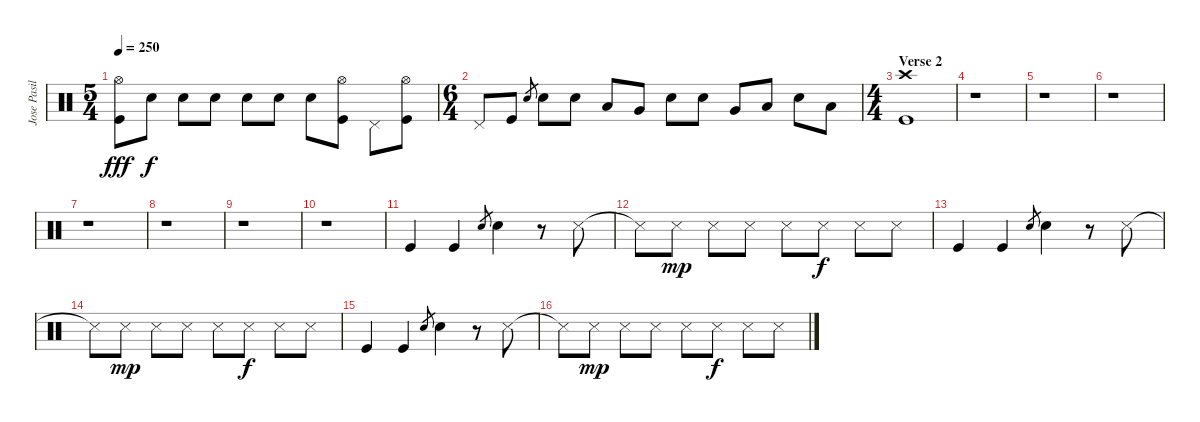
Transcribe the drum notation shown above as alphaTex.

\track ("Jose Pasillas II" "Jose Pasil") {instrument percussion}
\staff {score}
\articulation defaults
\ts (5 4)
\tempo 250
\clef neutral
\ks c
("Hi-Hat (open)" "Kick (hit)").8{dy fff} "Electric Snare (hit)".8{dy f} "Electric Snare (hit)".8 "Electric Snare (hit)".8 "Electric Snare (hit)".8 "Electric Snare (hit)".8 "Electric Snare (hit)".8 ("Hi-Hat (open)" "Kick (hit)").8 "Pedal Hi-Hat (hit)".8 ("Hi-Hat (open)" "Kick (hit)").8 |
\ts (6 4)
"Pedal Hi-Hat (hit)".8 "Kick (hit)".8 "Electric Snare (hit)".8{gr} "Electric Snare (hit)".8 "Electric Snare (hit)".8 "Low Tom (hit)".8 "Very Low Tom (hit)".8 "Electric Snare (hit)".8 "Electric Snare (hit)".8 "Very Low Tom (hit)".8 "Low Floor Tom (hit)".8 "Electric Snare (hit)".8 "Low Floor Tom (hit)".8 |
\ts (4 4)
\section ("" "Verse 2")
("Crash high (hit)" "Kick (hit)").1 |
r.1 |
r.1 |
r.1 |
r.1 |
r.1 |
r.1 |
r.1 |
"Kick (hit)".4 "Kick (hit)".4 "Electric Snare (hit)".8{gr} "Electric Snare (hit)".4 r.8 "Metronome (hit)".8 |
"Metronome (hit)"{t}.8 "Metronome (hit)".8{dy mp} "Metronome (hit)".8 "Metronome (hit)".8 "Metronome (hit)".8 "Metronome (hit)".8{dy f} "Metronome (hit)".8 "Metronome (hit)".8 |
"Kick (hit)".4 "Kick (hit)".4 "Electric Snare (hit)".8{gr} "Electric Snare (hit)".4 r.8 "Metronome (hit)".8 |
"Metronome (hit)"{t}.8 "Metronome (hit)".8{dy mp} "Metronome (hit)".8 "Metronome (hit)".8 "Metronome (hit)".8 "Metronome (hit)".8{dy f} "Metronome (hit)".8 "Metronome (hit)".8 |
"Kick (hit)".4 "Kick (hit)".4 "Electric Snare (hit)".8{gr} "Electric Snare (hit)".4 r.8 "Metronome (hit)".8 |
"Metronome (hit)"{t}.8 "Metronome (hit)".8{dy mp} "Metronome (hit)".8 "Metronome (hit)".8 "Metronome (hit)".8 "Metronome (hit)".8{dy f} "Metronome (hit)".8 "Metronome (hit)".8
